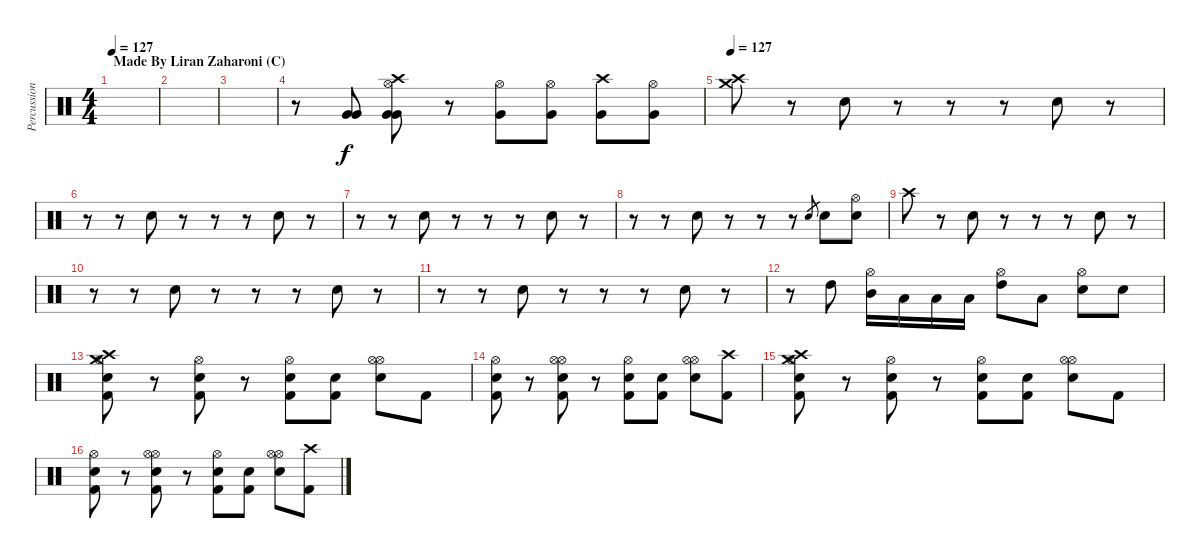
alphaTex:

\track ("Percussion" "Percussion") {instrument percussion}
\staff {score}
\articulation defaults
\ts (4 4)
\section ("" "Made By Liran Zaharoni (C)")
\tempo 127
\tempo 135
\tempo 127
\clef neutral
\ks c
|
|
|
r.8 ("Very Low Tom (hit)" "Very Low Tom (hit)").8 ("Hi-Hat (open)" "Crash high (hit)" "Very Low Tom (hit)" "Very Low Tom (hit)").8 r.8 ("Hi-Hat (open)" "Very Low Tom (hit)").8 ("Hi-Hat (open)" "Very Low Tom (hit)").8 ("Crash high (hit)" "Very Low Tom (hit)").8 ("Hi-Hat (open)" "Very Low Tom (hit)").8 |
\tempo 127
("Crash medium (hit)" "Crash high (hit)").8 r.8 "Snare (hit) 2".8 r.8 r.8 r.8 "Snare (hit) 2".8 r.8 |
r.8 r.8 "Snare (hit) 2".8 r.8 r.8 r.8 "Snare (hit) 2".8 r.8 |
r.8 r.8 "Snare (hit) 2".8 r.8 r.8 r.8 "Snare (hit) 2".8 r.8 |
r.8 r.8 "Snare (hit) 2".8 r.8 r.8 r.8 "Snare (hit) 2".8{gr} "Snare (hit) 2".8 ("Hi-Hat (open)" "Snare (hit) 2").8 |
"Crash high (hit)".8 r.8 "Snare (hit) 2".8 r.8 r.8 r.8 "Snare (hit) 2".8 r.8 |
r.8 r.8 "Snare (hit) 2".8 r.8 r.8 r.8 "Snare (hit) 2".8 r.8 |
r.8 r.8 "Snare (hit) 2".8 r.8 r.8 r.8 "Snare (hit) 2".8 r.8 |
r.8 "High Tom (hit)".8 ("Hi-Hat (open)" "Mid Tom (hit)").16 "Low Tom (hit)".16 "Low Tom (hit)".16 "Low Tom (hit)".16 ("Hi-Hat (open)" "High Tom (hit)").8 "Low Tom (hit)".8 ("Hi-Hat (open)" "Electric Snare (hit)").8 "Electric Snare (hit)".8 |
("Crash high (hit)" "Crash medium (hit)" "Kick (hit) 2" "Snare (hit) 2" "Hi-Hat (open)").8 r.8 ("Hi-Hat (open)" "Kick (hit) 2" "Electric Snare (hit)").8 r.8 ("Kick (hit) 2" "Snare (hit) 2" "Hi-Hat (open)").8 ("Kick (hit) 2" "Snare (hit) 2").8 ("Hi-Hat (open)" "Electric Snare (hit)" "Hi-Hat (open)").8 "Kick (hit) 2".8 |
("Kick (hit) 2" "Snare (hit) 2" "Hi-Hat (open)").8 r.8 ("Hi-Hat (open)" "Kick (hit) 2" "Electric Snare (hit)" "Hi-Hat (open)").8 r.8 ("Kick (hit) 2" "Snare (hit) 2" "Hi-Hat (open)").8 ("Kick (hit) 2" "Snare (hit) 2").8 ("Hi-Hat (open)" "Electric Snare (hit)" "Hi-Hat (open)").8 ("Crash high (hit)" "Kick (hit) 2").8 |
("Crash high (hit)" "Crash medium (hit)" "Kick (hit) 2" "Snare (hit) 2" "Hi-Hat (open)").8 r.8 ("Hi-Hat (open)" "Kick (hit) 2" "Electric Snare (hit)").8 r.8 ("Kick (hit) 2" "Snare (hit) 2" "Hi-Hat (open)").8 ("Kick (hit) 2" "Snare (hit) 2").8 ("Hi-Hat (open)" "Electric Snare (hit)" "Hi-Hat (open)").8 "Kick (hit) 2".8 |
("Kick (hit) 2" "Snare (hit) 2" "Hi-Hat (open)").8 r.8 ("Hi-Hat (open)" "Kick (hit) 2" "Electric Snare (hit)" "Hi-Hat (open)").8 r.8 ("Kick (hit) 2" "Snare (hit) 2" "Hi-Hat (open)").8 ("Kick (hit) 2" "Snare (hit) 2").8 ("Hi-Hat (open)" "Electric Snare (hit)" "Hi-Hat (open)").8 ("Crash high (hit)" "Kick (hit) 2").8
